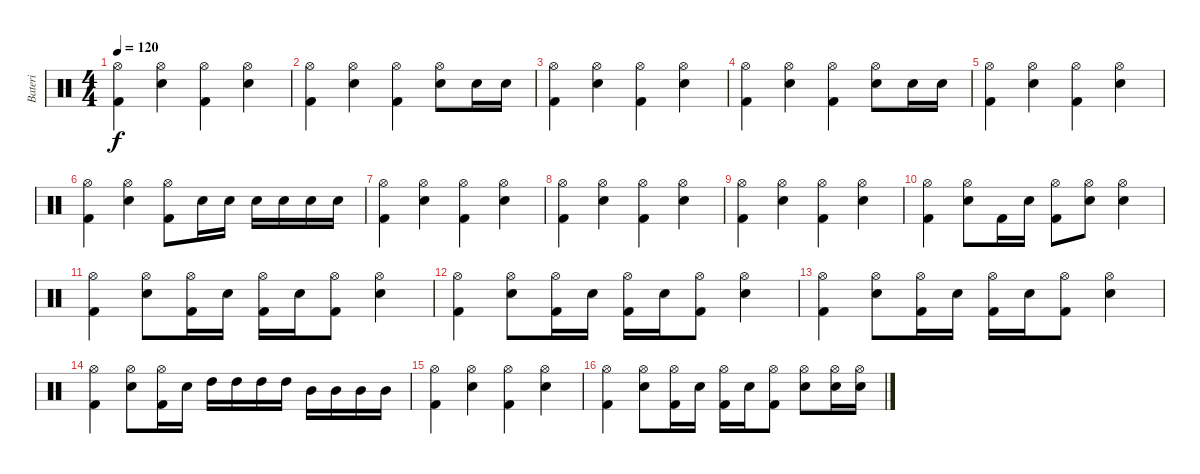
\track ("Bateri" "Bateri") {instrument percussion}
\staff {score}
\articulation defaults
\ts (4 4)
\tempo 120
\clef neutral
\ks c
("Kick (hit) 2" "Hi-Hat (open)").4{dy f} ("Electric Snare (hit)" "Hi-Hat (open)").4 ("Kick (hit) 2" "Hi-Hat (open)").4 ("Electric Snare (hit)" "Hi-Hat (open)").4 |
("Kick (hit) 2" "Hi-Hat (open)").4 ("Electric Snare (hit)" "Hi-Hat (open)").4 ("Kick (hit) 2" "Hi-Hat (open)").4 ("Electric Snare (hit)" "Hi-Hat (open)").8 "Electric Snare (hit)".16 "Electric Snare (hit)".16 |
("Kick (hit) 2" "Hi-Hat (open)").4 ("Electric Snare (hit)" "Hi-Hat (open)").4 ("Kick (hit) 2" "Hi-Hat (open)").4 ("Electric Snare (hit)" "Hi-Hat (open)").4 |
("Kick (hit) 2" "Hi-Hat (open)").4 ("Electric Snare (hit)" "Hi-Hat (open)").4 ("Kick (hit) 2" "Hi-Hat (open)").4 ("Electric Snare (hit)" "Hi-Hat (open)").8 "Electric Snare (hit)".16 "Electric Snare (hit)".16 |
("Kick (hit) 2" "Hi-Hat (open)").4 ("Electric Snare (hit)" "Hi-Hat (open)").4 ("Kick (hit) 2" "Hi-Hat (open)").4 ("Electric Snare (hit)" "Hi-Hat (open)").4 |
("Kick (hit) 2" "Hi-Hat (open)").4 ("Electric Snare (hit)" "Hi-Hat (open)").4 ("Kick (hit) 2" "Hi-Hat (open)").8 "Electric Snare (hit)".16 "Electric Snare (hit)".16 "Electric Snare (hit)".16 "Electric Snare (hit)".16 "Electric Snare (hit)".16 "Electric Snare (hit)".16 |
("Kick (hit) 2" "Hi-Hat (open)").4 ("Electric Snare (hit)" "Hi-Hat (open)").4 ("Kick (hit) 2" "Hi-Hat (open)").4 ("Electric Snare (hit)" "Hi-Hat (open)").4 |
("Kick (hit) 2" "Hi-Hat (open)").4 ("Electric Snare (hit)" "Hi-Hat (open)").4 ("Kick (hit) 2" "Hi-Hat (open)").4 ("Electric Snare (hit)" "Hi-Hat (open)").4 |
("Kick (hit) 2" "Hi-Hat (open)").4 ("Electric Snare (hit)" "Hi-Hat (open)").4 ("Kick (hit) 2" "Hi-Hat (open)").4 ("Electric Snare (hit)" "Hi-Hat (open)").4 |
("Kick (hit) 2" "Hi-Hat (open)").4 ("Electric Snare (hit)" "Hi-Hat (open)").8 "Kick (hit) 2".16 "Electric Snare (hit)".16 ("Kick (hit) 2" "Hi-Hat (open)").8 ("Electric Snare (hit)" "Hi-Hat (open)").8 ("Electric Snare (hit)" "Hi-Hat (open)").4 |
("Kick (hit) 2" "Hi-Hat (open)").4 ("Electric Snare (hit)" "Hi-Hat (open)").8 ("Kick (hit) 2" "Hi-Hat (open)").16 "Electric Snare (hit)".16 ("Kick (hit) 2" "Hi-Hat (open)").16 "Electric Snare (hit)".16 ("Kick (hit) 2" "Hi-Hat (open)").8 ("Electric Snare (hit)" "Hi-Hat (open)").4 |
("Kick (hit) 2" "Hi-Hat (open)").4 ("Electric Snare (hit)" "Hi-Hat (open)").8 ("Kick (hit) 2" "Hi-Hat (open)").16 "Electric Snare (hit)".16 ("Kick (hit) 2" "Hi-Hat (open)").16 "Electric Snare (hit)".16 ("Kick (hit) 2" "Hi-Hat (open)").8 ("Electric Snare (hit)" "Hi-Hat (open)").4 |
("Kick (hit) 2" "Hi-Hat (open)").4 ("Electric Snare (hit)" "Hi-Hat (open)").8 ("Kick (hit) 2" "Hi-Hat (open)").16 "Electric Snare (hit)".16 ("Kick (hit) 2" "Hi-Hat (open)").16 "Electric Snare (hit)".16 ("Kick (hit) 2" "Hi-Hat (open)").8 ("Electric Snare (hit)" "Hi-Hat (open)").4 |
("Kick (hit) 2" "Hi-Hat (open)").4 ("Electric Snare (hit)" "Hi-Hat (open)").8 ("Kick (hit) 2" "Hi-Hat (open)").16 "Electric Snare (hit)".16 "High Tom (hit)".16 "High Tom (hit)".16 "High Tom (hit)".16 "High Tom (hit)".16 "Mid Tom (hit)".16 "Mid Tom (hit)".16 "Mid Tom (hit)".16 "Mid Tom (hit)".16 |
("Kick (hit) 2" "Hi-Hat (open)").4 ("Electric Snare (hit)" "Hi-Hat (open)").4 ("Kick (hit) 2" "Hi-Hat (open)").4 ("Electric Snare (hit)" "Hi-Hat (open)").4 |
("Kick (hit) 2" "Hi-Hat (open)").4 ("Electric Snare (hit)" "Hi-Hat (open)").8 ("Kick (hit) 2" "Hi-Hat (open)").16 "Electric Snare (hit)".16 ("Kick (hit) 2" "Hi-Hat (open)").16 "Electric Snare (hit)".16 ("Kick (hit) 2" "Hi-Hat (open)").8 ("Electric Snare (hit)" "Hi-Hat (open)").8 ("Electric Snare (hit)" "Hi-Hat (open)").16 ("Electric Snare (hit)" "Hi-Hat (open)").16
